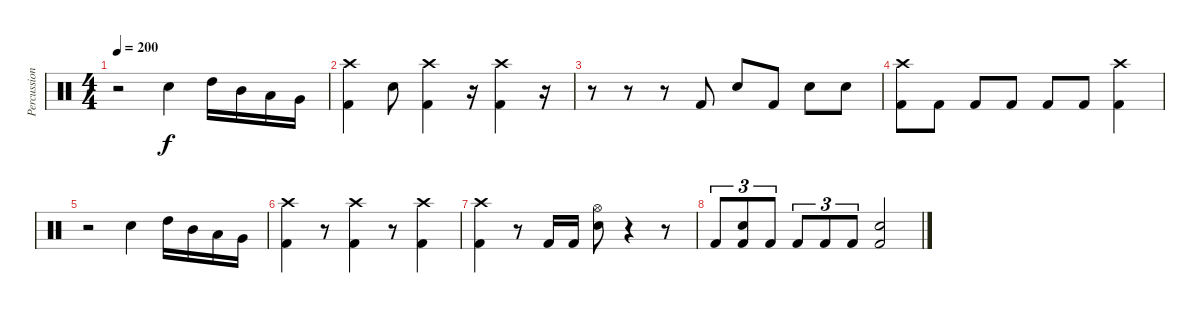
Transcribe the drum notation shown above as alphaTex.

\track ("Percussion" "Percussion") {instrument percussion}
\staff {score}
\articulation defaults
\ts (4 4)
\tempo 200
\clef neutral
\ks c
r.2{dy f} "Snare (hit) 2".4 "High Tom (hit)".16 "Mid Tom (hit)".16 "Low Tom (hit)".16 "Very Low Tom (hit)".16 |
("Crash high (hit)" "Kick (hit) 2").4 "Snare (hit) 2".8 ("Crash high (hit)" "Kick (hit) 2").4 r.16 ("Crash high (hit)" "Kick (hit) 2").4 r.16 |
r.8 r.8 r.8 "Kick (hit) 2".8 "Snare (hit) 2".8 "Kick (hit) 2".8 "Snare (hit) 2".8 "Snare (hit) 2".8 |
("Crash high (hit)" "Kick (hit) 2").8 "Kick (hit) 2".8 "Kick (hit) 2".8 "Kick (hit) 2".8 "Kick (hit) 2".8 "Kick (hit) 2".8 ("Crash high (hit)" "Kick (hit) 2").4 |
r.2 "Snare (hit) 2".4 "High Tom (hit)".16 "Mid Tom (hit)".16 "Low Tom (hit)".16 "Very Low Tom (hit)".16 |
("Crash high (hit)" "Kick (hit) 2").4 r.8 ("Crash high (hit)" "Kick (hit) 2").4 r.8 ("Crash high (hit)" "Kick (hit) 2").4 |
("Crash high (hit)" "Kick (hit) 2").4 r.8 "Kick (hit) 2".16 "Kick (hit) 2".16 ("Hi-Hat (open)" "Snare (hit) 2").8 r.4 r.8 |
"Kick (hit) 2".8{tu (3 2)} ("Snare (hit) 2" "Kick (hit) 2").8{tu (3 2)} "Kick (hit) 2".8{tu (3 2)} "Kick (hit) 2".8{tu (3 2)} "Kick (hit) 2".8{tu (3 2)} "Kick (hit) 2".8{tu (3 2)} ("Snare (hit) 2" "Kick (hit) 2").2
